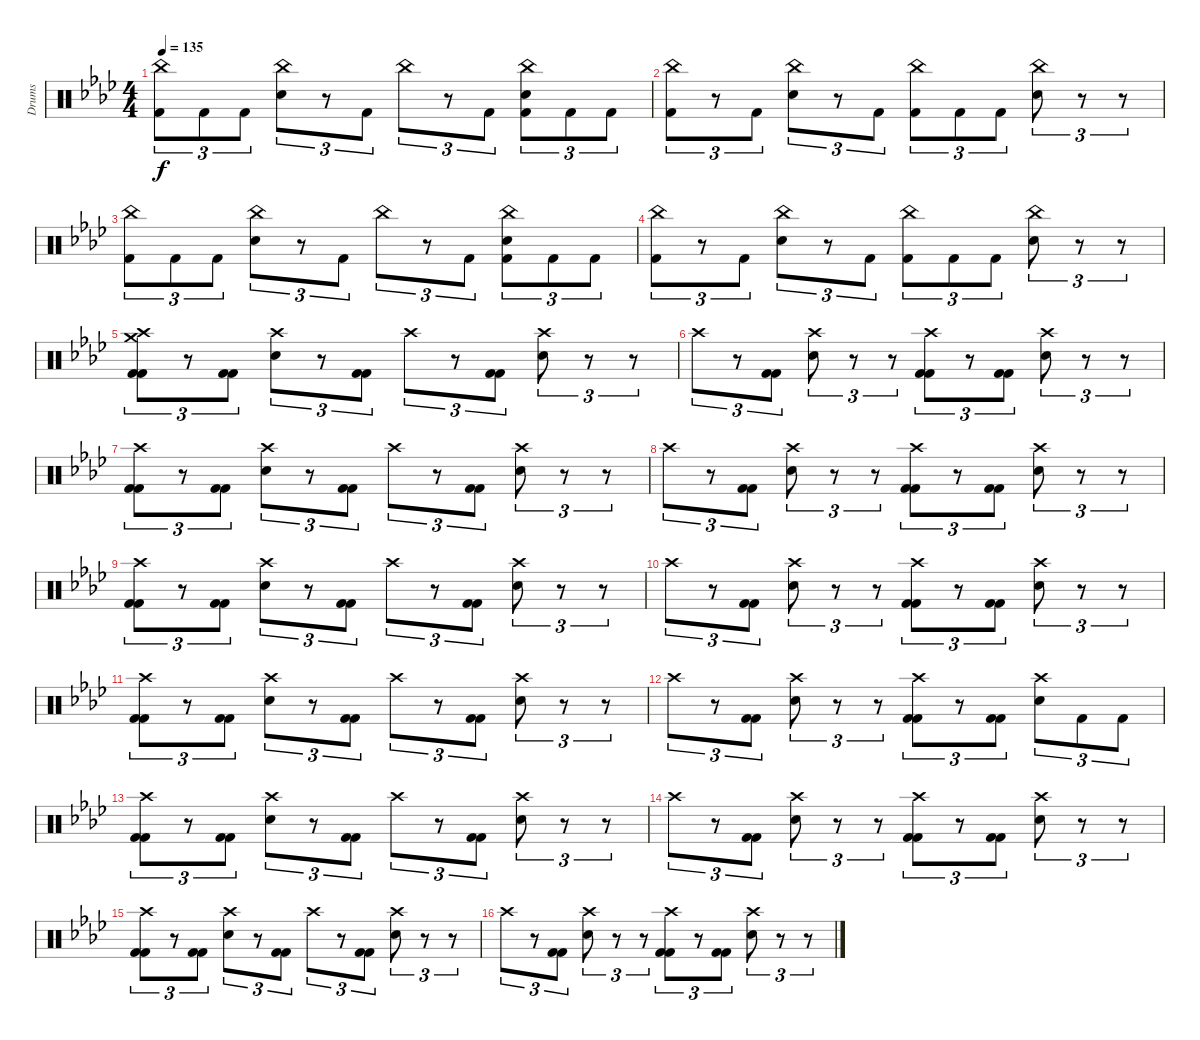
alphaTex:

\track ("Drums" "Drums") {instrument percussion}
\staff {score}
\articulation defaults
\ts (4 4)
\tempo 135
\clef neutral
\ks ab
("China (hit)" "Kick (hit) 2").8{tu (3 2) dy f} "Kick (hit) 2".8{tu (3 2)} "Kick (hit) 2".8{tu (3 2)} ("China (hit)" "Electric Snare (hit)").8{tu (3 2)} r.8{tu (3 2)} "Kick (hit) 2".8{tu (3 2)} "China (hit)".8{tu (3 2)} r.8{tu (3 2)} "Kick (hit) 2".8{tu (3 2)} ("China (hit)" "Electric Snare (hit)" "Kick (hit) 2").8{tu (3 2)} "Kick (hit) 2".8{tu (3 2)} "Kick (hit) 2".8{tu (3 2)} |
("China (hit)" "Kick (hit) 2").8{tu (3 2)} r.8{tu (3 2)} "Kick (hit) 2".8{tu (3 2)} ("China (hit)" "Electric Snare (hit)").8{tu (3 2)} r.8{tu (3 2)} "Kick (hit) 2".8{tu (3 2)} ("China (hit)" "Kick (hit) 2").8{tu (3 2)} "Kick (hit) 2".8{tu (3 2)} "Kick (hit) 2".8{tu (3 2)} ("China (hit)" "Electric Snare (hit)").8{tu (3 2)} r.8{tu (3 2)} r.8{tu (3 2)} |
("China (hit)" "Kick (hit) 2").8{tu (3 2)} "Kick (hit) 2".8{tu (3 2)} "Kick (hit) 2".8{tu (3 2)} ("China (hit)" "Electric Snare (hit)").8{tu (3 2)} r.8{tu (3 2)} "Kick (hit) 2".8{tu (3 2)} "China (hit)".8{tu (3 2)} r.8{tu (3 2)} "Kick (hit) 2".8{tu (3 2)} ("China (hit)" "Electric Snare (hit)" "Kick (hit) 2").8{tu (3 2)} "Kick (hit) 2".8{tu (3 2)} "Kick (hit) 2".8{tu (3 2)} |
("China (hit)" "Kick (hit) 2").8{tu (3 2)} r.8{tu (3 2)} "Kick (hit) 2".8{tu (3 2)} ("China (hit)" "Electric Snare (hit)").8{tu (3 2)} r.8{tu (3 2)} "Kick (hit) 2".8{tu (3 2)} ("China (hit)" "Kick (hit) 2").8{tu (3 2)} "Kick (hit) 2".8{tu (3 2)} "Kick (hit) 2".8{tu (3 2)} ("China (hit)" "Electric Snare (hit)").8{tu (3 2)} r.8{tu (3 2)} r.8{tu (3 2)} |
("Crash high (hit)" "Crash medium (hit)" "Kick (hit) 2" "Kick (hit) 2").8{tu (3 2)} r.8{tu (3 2)} ("Kick (hit) 2" "Kick (hit) 2").8{tu (3 2)} ("Crash high (hit)" "Electric Snare (hit)").8{tu (3 2)} r.8{tu (3 2)} ("Kick (hit) 2" "Kick (hit) 2").8{tu (3 2)} "Crash high (hit)".8{tu (3 2)} r.8{tu (3 2)} ("Kick (hit) 2" "Kick (hit) 2").8{tu (3 2)} ("Crash high (hit)" "Electric Snare (hit)").8{tu (3 2)} r.8{tu (3 2)} r.8{tu (3 2)} |
"Crash high (hit)".8{tu (3 2)} r.8{tu (3 2)} ("Kick (hit) 2" "Kick (hit) 2").8{tu (3 2)} ("Crash high (hit)" "Electric Snare (hit)").8{tu (3 2)} r.8{tu (3 2)} r.8{tu (3 2)} ("Crash high (hit)" "Kick (hit) 2" "Kick (hit) 2").8{tu (3 2)} r.8{tu (3 2)} ("Kick (hit) 2" "Kick (hit) 2").8{tu (3 2)} ("Crash high (hit)" "Electric Snare (hit)").8{tu (3 2)} r.8{tu (3 2)} r.8{tu (3 2)} |
("Crash high (hit)" "Kick (hit) 2" "Kick (hit) 2").8{tu (3 2)} r.8{tu (3 2)} ("Kick (hit) 2" "Kick (hit) 2").8{tu (3 2)} ("Crash high (hit)" "Electric Snare (hit)").8{tu (3 2)} r.8{tu (3 2)} ("Kick (hit) 2" "Kick (hit) 2").8{tu (3 2)} "Crash high (hit)".8{tu (3 2)} r.8{tu (3 2)} ("Kick (hit) 2" "Kick (hit) 2").8{tu (3 2)} ("Crash high (hit)" "Electric Snare (hit)").8{tu (3 2)} r.8{tu (3 2)} r.8{tu (3 2)} |
"Crash high (hit)".8{tu (3 2)} r.8{tu (3 2)} ("Kick (hit) 2" "Kick (hit) 2").8{tu (3 2)} ("Crash high (hit)" "Electric Snare (hit)").8{tu (3 2)} r.8{tu (3 2)} r.8{tu (3 2)} ("Crash high (hit)" "Kick (hit) 2" "Kick (hit) 2").8{tu (3 2)} r.8{tu (3 2)} ("Kick (hit) 2" "Kick (hit) 2").8{tu (3 2)} ("Crash high (hit)" "Electric Snare (hit)").8{tu (3 2)} r.8{tu (3 2)} r.8{tu (3 2)} |
("Crash high (hit)" "Kick (hit) 2" "Kick (hit) 2").8{tu (3 2)} r.8{tu (3 2)} ("Kick (hit) 2" "Kick (hit) 2").8{tu (3 2)} ("Crash high (hit)" "Electric Snare (hit)").8{tu (3 2)} r.8{tu (3 2)} ("Kick (hit) 2" "Kick (hit) 2").8{tu (3 2)} "Crash high (hit)".8{tu (3 2)} r.8{tu (3 2)} ("Kick (hit) 2" "Kick (hit) 2").8{tu (3 2)} ("Crash high (hit)" "Electric Snare (hit)").8{tu (3 2)} r.8{tu (3 2)} r.8{tu (3 2)} |
"Crash high (hit)".8{tu (3 2)} r.8{tu (3 2)} ("Kick (hit) 2" "Kick (hit) 2").8{tu (3 2)} ("Crash high (hit)" "Electric Snare (hit)").8{tu (3 2)} r.8{tu (3 2)} r.8{tu (3 2)} ("Crash high (hit)" "Kick (hit) 2" "Kick (hit) 2").8{tu (3 2)} r.8{tu (3 2)} ("Kick (hit) 2" "Kick (hit) 2").8{tu (3 2)} ("Crash high (hit)" "Electric Snare (hit)").8{tu (3 2)} r.8{tu (3 2)} r.8{tu (3 2)} |
("Crash high (hit)" "Kick (hit) 2" "Kick (hit) 2").8{tu (3 2)} r.8{tu (3 2)} ("Kick (hit) 2" "Kick (hit) 2").8{tu (3 2)} ("Crash high (hit)" "Electric Snare (hit)").8{tu (3 2)} r.8{tu (3 2)} ("Kick (hit) 2" "Kick (hit) 2").8{tu (3 2)} "Crash high (hit)".8{tu (3 2)} r.8{tu (3 2)} ("Kick (hit) 2" "Kick (hit) 2").8{tu (3 2)} ("Crash high (hit)" "Electric Snare (hit)").8{tu (3 2)} r.8{tu (3 2)} r.8{tu (3 2)} |
"Crash high (hit)".8{tu (3 2)} r.8{tu (3 2)} ("Kick (hit) 2" "Kick (hit) 2").8{tu (3 2)} ("Crash high (hit)" "Electric Snare (hit)").8{tu (3 2)} r.8{tu (3 2)} r.8{tu (3 2)} ("Crash high (hit)" "Kick (hit) 2" "Kick (hit) 2").8{tu (3 2)} r.8{tu (3 2)} ("Kick (hit) 2" "Kick (hit) 2").8{tu (3 2)} ("Crash high (hit)" "Electric Snare (hit)").8{tu (3 2)} "Kick (hit) 2".8{tu (3 2)} "Kick (hit) 2".8{tu (3 2)} |
("Crash high (hit)" "Kick (hit) 2" "Kick (hit) 2").8{tu (3 2)} r.8{tu (3 2)} ("Kick (hit) 2" "Kick (hit) 2").8{tu (3 2)} ("Crash high (hit)" "Electric Snare (hit)").8{tu (3 2)} r.8{tu (3 2)} ("Kick (hit) 2" "Kick (hit) 2").8{tu (3 2)} "Crash high (hit)".8{tu (3 2)} r.8{tu (3 2)} ("Kick (hit) 2" "Kick (hit) 2").8{tu (3 2)} ("Crash high (hit)" "Electric Snare (hit)").8{tu (3 2)} r.8{tu (3 2)} r.8{tu (3 2)} |
"Crash high (hit)".8{tu (3 2)} r.8{tu (3 2)} ("Kick (hit) 2" "Kick (hit) 2").8{tu (3 2)} ("Crash high (hit)" "Electric Snare (hit)").8{tu (3 2)} r.8{tu (3 2)} r.8{tu (3 2)} ("Crash high (hit)" "Kick (hit) 2" "Kick (hit) 2").8{tu (3 2)} r.8{tu (3 2)} ("Kick (hit) 2" "Kick (hit) 2").8{tu (3 2)} ("Crash high (hit)" "Electric Snare (hit)").8{tu (3 2)} r.8{tu (3 2)} r.8{tu (3 2)} |
("Crash high (hit)" "Kick (hit) 2" "Kick (hit) 2").8{tu (3 2)} r.8{tu (3 2)} ("Kick (hit) 2" "Kick (hit) 2").8{tu (3 2)} ("Crash high (hit)" "Electric Snare (hit)").8{tu (3 2)} r.8{tu (3 2)} ("Kick (hit) 2" "Kick (hit) 2").8{tu (3 2)} "Crash high (hit)".8{tu (3 2)} r.8{tu (3 2)} ("Kick (hit) 2" "Kick (hit) 2").8{tu (3 2)} ("Crash high (hit)" "Electric Snare (hit)").8{tu (3 2)} r.8{tu (3 2)} r.8{tu (3 2)} |
"Crash high (hit)".8{tu (3 2)} r.8{tu (3 2)} ("Kick (hit) 2" "Kick (hit) 2").8{tu (3 2)} ("Crash high (hit)" "Electric Snare (hit)").8{tu (3 2)} r.8{tu (3 2)} r.8{tu (3 2)} ("Crash high (hit)" "Kick (hit) 2" "Kick (hit) 2").8{tu (3 2)} r.8{tu (3 2)} ("Kick (hit) 2" "Kick (hit) 2").8{tu (3 2)} ("Crash high (hit)" "Electric Snare (hit)").8{tu (3 2)} r.8{tu (3 2)} r.8{tu (3 2)}
